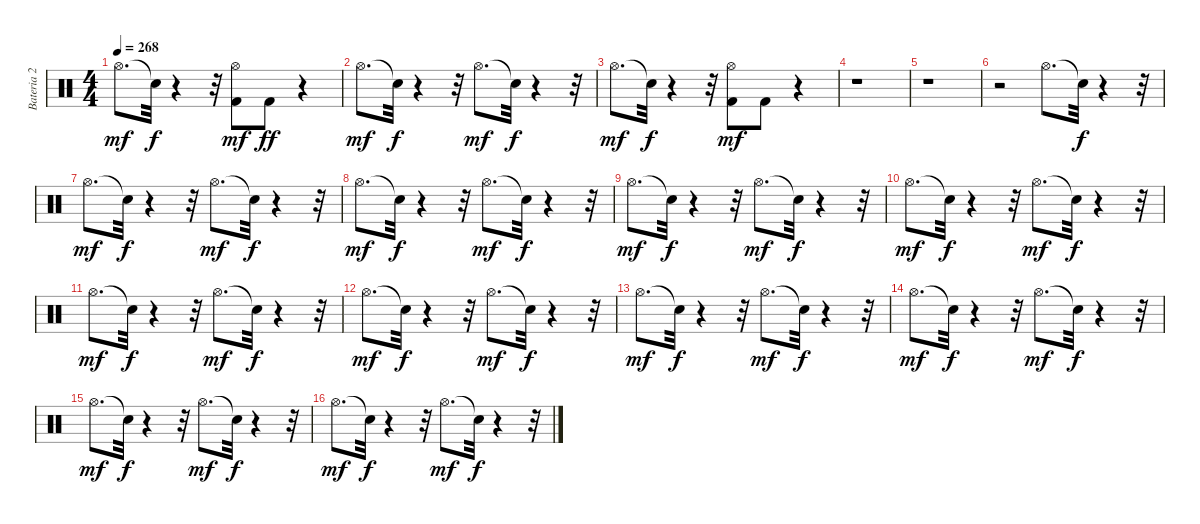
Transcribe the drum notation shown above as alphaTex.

\track ("Bateria 2" "Bateria 2") {instrument percussion}
\staff {score}
\articulation defaults
\ts (4 4)
\tempo 268
\clef neutral
\ks c "Hi-Hat (open)".8{d dy mf} "Snare (hit)"{t}.32{dy f}
r.4 r.32 ("Kick (hit) 2" "Hi-Hat (open)").8{dy mf} "Kick (hit) 2".8{dy ff} r.4 |
"Hi-Hat (open)".8{d dy mf} "Snare (hit)"{t}.32{dy f} r.4 r.32 "Hi-Hat (open)".8{d dy mf} "Snare (hit)"{t}.32{dy f} r.4 r.32 |
"Hi-Hat (open)".8{d dy mf} "Snare (hit)"{t}.32{dy f} r.4 r.32 ("Kick (hit) 2" "Hi-Hat (open)").8{dy mf} "Kick (hit) 2".8 r.4 |
r.1 |
r.1 |
r.2 "Hi-Hat (open)".8{d} "Snare (hit)"{t}.32{dy f} r.4 r.32 |
"Hi-Hat (open)".8{d dy mf} "Snare (hit)"{t}.32{dy f} r.4 r.32 "Hi-Hat (open)".8{d dy mf} "Snare (hit)"{t}.32{dy f} r.4 r.32 |
"Hi-Hat (open)".8{d dy mf} "Snare (hit)"{t}.32{dy f} r.4 r.32 "Hi-Hat (open)".8{d dy mf} "Snare (hit)"{t}.32{dy f} r.4 r.32 |
"Hi-Hat (open)".8{d dy mf} "Snare (hit)"{t}.32{dy f} r.4 r.32 "Hi-Hat (open)".8{d dy mf} "Snare (hit)"{t}.32{dy f} r.4 r.32 |
"Hi-Hat (open)".8{d dy mf} "Snare (hit)"{t}.32{dy f} r.4 r.32 "Hi-Hat (open)".8{d dy mf} "Snare (hit)"{t}.32{dy f} r.4 r.32 |
"Hi-Hat (open)".8{d dy mf} "Snare (hit)"{t}.32{dy f} r.4 r.32 "Hi-Hat (open)".8{d dy mf} "Snare (hit)"{t}.32{dy f} r.4 r.32 |
"Hi-Hat (open)".8{d dy mf} "Snare (hit)"{t}.32{dy f} r.4 r.32 "Hi-Hat (open)".8{d dy mf} "Snare (hit)"{t}.32{dy f} r.4 r.32 |
"Hi-Hat (open)".8{d dy mf} "Snare (hit)"{t}.32{dy f} r.4 r.32 "Hi-Hat (open)".8{d dy mf} "Snare (hit)"{t}.32{dy f} r.4 r.32 |
"Hi-Hat (open)".8{d dy mf} "Snare (hit)"{t}.32{dy f} r.4 r.32 "Hi-Hat (open)".8{d dy mf} "Snare (hit)"{t}.32{dy f} r.4 r.32 |
"Hi-Hat (open)".8{d dy mf} "Snare (hit)"{t}.32{dy f} r.4 r.32 "Hi-Hat (open)".8{d dy mf} "Snare (hit)"{t}.32{dy f} r.4 r.32 |
"Hi-Hat (open)".8{d dy mf} "Snare (hit)"{t}.32{dy f} r.4 r.32 "Hi-Hat (open)".8{d dy mf} "Snare (hit)"{t}.32{dy f} r.4 r.32
